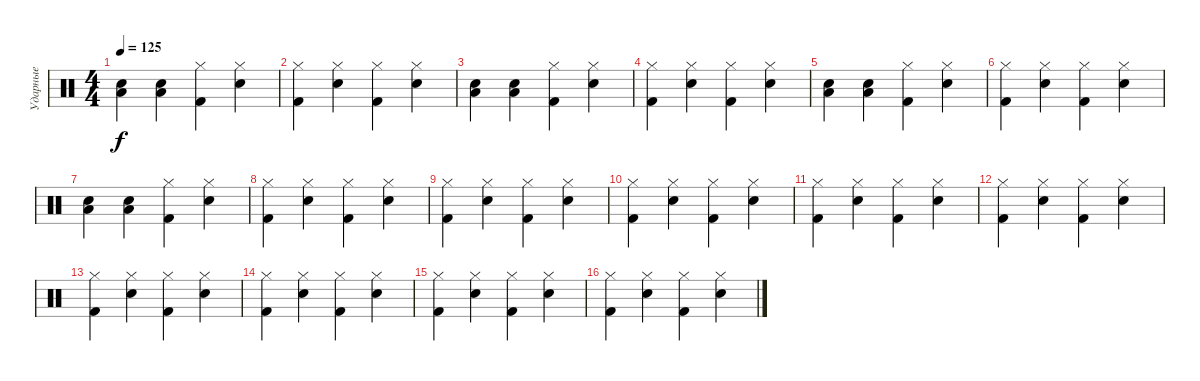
\track ("Ударные" "Ударные") {instrument percussion}
\staff {score}
\articulation defaults
\ts (4 4)
\tempo 125
\clef neutral
\ks c
("Snare (hit) 2" "Low Tom (hit)").4{dy f} ("Snare (hit) 2" "Low Tom (hit)").4 ("Hi-Hat (closed)" "Kick (hit) 2").4 ("Hi-Hat (closed)" "Snare (hit) 2").4 |
("Hi-Hat (closed)" "Kick (hit) 2").4 ("Hi-Hat (closed)" "Snare (hit) 2").4 ("Hi-Hat (closed)" "Kick (hit) 2").4 ("Hi-Hat (closed)" "Snare (hit) 2").4 |
("Snare (hit) 2" "Low Tom (hit)").4 ("Snare (hit) 2" "Low Tom (hit)").4 ("Hi-Hat (closed)" "Kick (hit) 2").4 ("Hi-Hat (closed)" "Snare (hit) 2").4 |
("Hi-Hat (closed)" "Kick (hit) 2").4 ("Hi-Hat (closed)" "Snare (hit) 2").4 ("Hi-Hat (closed)" "Kick (hit) 2").4 ("Hi-Hat (closed)" "Snare (hit) 2").4 |
("Snare (hit) 2" "Low Tom (hit)").4 ("Snare (hit) 2" "Low Tom (hit)").4 ("Hi-Hat (closed)" "Kick (hit) 2").4 ("Hi-Hat (closed)" "Snare (hit) 2").4 |
("Hi-Hat (closed)" "Kick (hit) 2").4 ("Hi-Hat (closed)" "Snare (hit) 2").4 ("Hi-Hat (closed)" "Kick (hit) 2").4 ("Hi-Hat (closed)" "Snare (hit) 2").4 |
("Snare (hit) 2" "Low Tom (hit)").4 ("Snare (hit) 2" "Low Tom (hit)").4 ("Hi-Hat (closed)" "Kick (hit) 2").4 ("Hi-Hat (closed)" "Snare (hit) 2").4 |
("Hi-Hat (closed)" "Kick (hit) 2").4 ("Hi-Hat (closed)" "Snare (hit) 2").4 ("Hi-Hat (closed)" "Kick (hit) 2").4 ("Hi-Hat (closed)" "Snare (hit) 2").4 |
("Hi-Hat (closed)" "Kick (hit) 2").4 ("Hi-Hat (closed)" "Snare (hit) 2").4 ("Hi-Hat (closed)" "Kick (hit) 2").4 ("Hi-Hat (closed)" "Snare (hit) 2").4 |
("Hi-Hat (closed)" "Kick (hit) 2").4 ("Hi-Hat (closed)" "Snare (hit) 2").4 ("Hi-Hat (closed)" "Kick (hit) 2").4 ("Hi-Hat (closed)" "Snare (hit) 2").4 |
("Hi-Hat (closed)" "Kick (hit) 2").4 ("Hi-Hat (closed)" "Snare (hit) 2").4 ("Hi-Hat (closed)" "Kick (hit) 2").4 ("Hi-Hat (closed)" "Snare (hit) 2").4 |
("Hi-Hat (closed)" "Kick (hit) 2").4 ("Hi-Hat (closed)" "Snare (hit) 2").4 ("Hi-Hat (closed)" "Kick (hit) 2").4 ("Hi-Hat (closed)" "Snare (hit) 2").4 |
("Hi-Hat (closed)" "Kick (hit) 2").4 ("Hi-Hat (closed)" "Snare (hit) 2").4 ("Hi-Hat (closed)" "Kick (hit) 2").4 ("Hi-Hat (closed)" "Snare (hit) 2").4 |
("Hi-Hat (closed)" "Kick (hit) 2").4 ("Hi-Hat (closed)" "Snare (hit) 2").4 ("Hi-Hat (closed)" "Kick (hit) 2").4 ("Hi-Hat (closed)" "Snare (hit) 2").4 |
("Hi-Hat (closed)" "Kick (hit) 2").4 ("Hi-Hat (closed)" "Snare (hit) 2").4 ("Hi-Hat (closed)" "Kick (hit) 2").4 ("Hi-Hat (closed)" "Snare (hit) 2").4 |
("Hi-Hat (closed)" "Kick (hit) 2").4 ("Hi-Hat (closed)" "Snare (hit) 2").4 ("Hi-Hat (closed)" "Kick (hit) 2").4 ("Hi-Hat (closed)" "Snare (hit) 2").4
